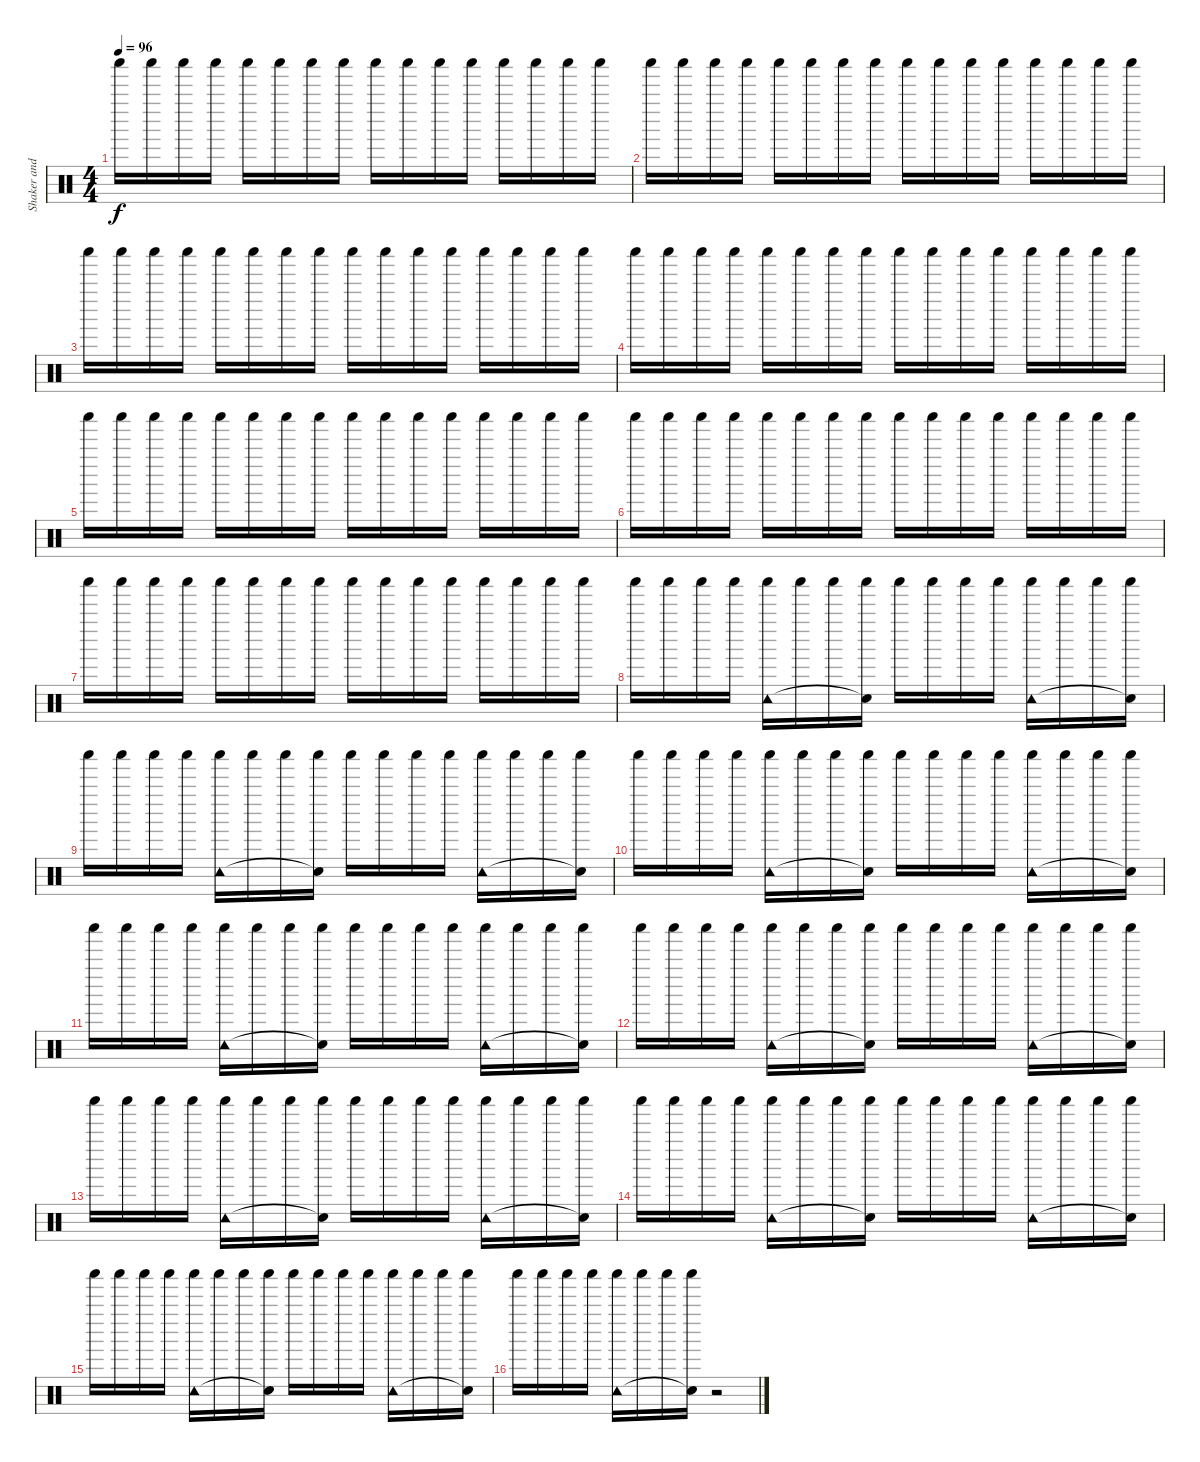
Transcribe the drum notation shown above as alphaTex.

\track ("Shaker and Tambourine" "Shaker and") {instrument percussion}
\staff {score}
\articulation defaults
\ts (4 4)
\tempo 96
\clef neutral
\ks c "Shaker (hit)".16{dy f} "Shaker (hit)".16 "Shaker (hit)".16 "Shaker (hit)".16 "Shaker (hit)".16 "Shaker (hit)".16 "Shaker (hit)".16 "Shaker (hit)".16 "Shaker (hit)".16 "Shaker (hit)".16 "Shaker (hit)".16 "Shaker (hit)".16 "Shaker (hit)".16 "Shaker (hit)".16 "Shaker (hit)".16 "Shaker (hit)".16
|
"Shaker (hit)".16 "Shaker (hit)".16 "Shaker (hit)".16 "Shaker (hit)".16 "Shaker (hit)".16 "Shaker (hit)".16 "Shaker (hit)".16 "Shaker (hit)".16 "Shaker (hit)".16 "Shaker (hit)".16 "Shaker (hit)".16 "Shaker (hit)".16 "Shaker (hit)".16 "Shaker (hit)".16 "Shaker (hit)".16 "Shaker (hit)".16 |
"Shaker (hit)".16 "Shaker (hit)".16 "Shaker (hit)".16 "Shaker (hit)".16 "Shaker (hit)".16 "Shaker (hit)".16 "Shaker (hit)".16 "Shaker (hit)".16 "Shaker (hit)".16 "Shaker (hit)".16 "Shaker (hit)".16 "Shaker (hit)".16 "Shaker (hit)".16 "Shaker (hit)".16 "Shaker (hit)".16 "Shaker (hit)".16 |
"Shaker (hit)".16 "Shaker (hit)".16 "Shaker (hit)".16 "Shaker (hit)".16 "Shaker (hit)".16 "Shaker (hit)".16 "Shaker (hit)".16 "Shaker (hit)".16 "Shaker (hit)".16 "Shaker (hit)".16 "Shaker (hit)".16 "Shaker (hit)".16 "Shaker (hit)".16 "Shaker (hit)".16 "Shaker (hit)".16 "Shaker (hit)".16 |
"Shaker (hit)".16 "Shaker (hit)".16 "Shaker (hit)".16 "Shaker (hit)".16 "Shaker (hit)".16 "Shaker (hit)".16 "Shaker (hit)".16 "Shaker (hit)".16 "Shaker (hit)".16 "Shaker (hit)".16 "Shaker (hit)".16 "Shaker (hit)".16 "Shaker (hit)".16 "Shaker (hit)".16 "Shaker (hit)".16 "Shaker (hit)".16 |
"Shaker (hit)".16 "Shaker (hit)".16 "Shaker (hit)".16 "Shaker (hit)".16 "Shaker (hit)".16 "Shaker (hit)".16 "Shaker (hit)".16 "Shaker (hit)".16 "Shaker (hit)".16 "Shaker (hit)".16 "Shaker (hit)".16 "Shaker (hit)".16 "Shaker (hit)".16 "Shaker (hit)".16 "Shaker (hit)".16 "Shaker (hit)".16 |
"Shaker (hit)".16 "Shaker (hit)".16 "Shaker (hit)".16 "Shaker (hit)".16 "Shaker (hit)".16 "Shaker (hit)".16 "Shaker (hit)".16 "Shaker (hit)".16 "Shaker (hit)".16 "Shaker (hit)".16 "Shaker (hit)".16 "Shaker (hit)".16 "Shaker (hit)".16 "Shaker (hit)".16 "Shaker (hit)".16 "Shaker (hit)".16 |
"Shaker (hit)".16 "Shaker (hit)".16 "Shaker (hit)".16 "Shaker (hit)".16 ("Shaker (hit)" "Tambourine (hit)").16 "Shaker (hit)".16 "Shaker (hit)".16 ("Shaker (hit)" "Snare (hit)"{t}).16 "Shaker (hit)".16 "Shaker (hit)".16 "Shaker (hit)".16 "Shaker (hit)".16 ("Shaker (hit)" "Tambourine (hit)").16 "Shaker (hit)".16 "Shaker (hit)".16 ("Shaker (hit)" "Snare (hit)"{t}).16 |
"Shaker (hit)".16 "Shaker (hit)".16 "Shaker (hit)".16 "Shaker (hit)".16 ("Shaker (hit)" "Tambourine (hit)").16 "Shaker (hit)".16 "Shaker (hit)".16 ("Shaker (hit)" "Snare (hit)"{t}).16 "Shaker (hit)".16 "Shaker (hit)".16 "Shaker (hit)".16 "Shaker (hit)".16 ("Shaker (hit)" "Tambourine (hit)").16 "Shaker (hit)".16 "Shaker (hit)".16 ("Shaker (hit)" "Snare (hit)"{t}).16 |
"Shaker (hit)".16 "Shaker (hit)".16 "Shaker (hit)".16 "Shaker (hit)".16 ("Shaker (hit)" "Tambourine (hit)").16 "Shaker (hit)".16 "Shaker (hit)".16 ("Shaker (hit)" "Snare (hit)"{t}).16 "Shaker (hit)".16 "Shaker (hit)".16 "Shaker (hit)".16 "Shaker (hit)".16 ("Shaker (hit)" "Tambourine (hit)").16 "Shaker (hit)".16 "Shaker (hit)".16 ("Shaker (hit)" "Snare (hit)"{t}).16 |
"Shaker (hit)".16 "Shaker (hit)".16 "Shaker (hit)".16 "Shaker (hit)".16 ("Shaker (hit)" "Tambourine (hit)").16 "Shaker (hit)".16 "Shaker (hit)".16 ("Shaker (hit)" "Snare (hit)"{t}).16 "Shaker (hit)".16 "Shaker (hit)".16 "Shaker (hit)".16 "Shaker (hit)".16 ("Shaker (hit)" "Tambourine (hit)").16 "Shaker (hit)".16 "Shaker (hit)".16 ("Shaker (hit)" "Snare (hit)"{t}).16 |
"Shaker (hit)".16 "Shaker (hit)".16 "Shaker (hit)".16 "Shaker (hit)".16 ("Shaker (hit)" "Tambourine (hit)").16 "Shaker (hit)".16 "Shaker (hit)".16 ("Shaker (hit)" "Snare (hit)"{t}).16 "Shaker (hit)".16 "Shaker (hit)".16 "Shaker (hit)".16 "Shaker (hit)".16 ("Shaker (hit)" "Tambourine (hit)").16 "Shaker (hit)".16 "Shaker (hit)".16 ("Shaker (hit)" "Snare (hit)"{t}).16 |
"Shaker (hit)".16 "Shaker (hit)".16 "Shaker (hit)".16 "Shaker (hit)".16 ("Shaker (hit)" "Tambourine (hit)").16 "Shaker (hit)".16 "Shaker (hit)".16 ("Shaker (hit)" "Snare (hit)"{t}).16 "Shaker (hit)".16 "Shaker (hit)".16 "Shaker (hit)".16 "Shaker (hit)".16 ("Shaker (hit)" "Tambourine (hit)").16 "Shaker (hit)".16 "Shaker (hit)".16 ("Shaker (hit)" "Snare (hit)"{t}).16 |
"Shaker (hit)".16 "Shaker (hit)".16 "Shaker (hit)".16 "Shaker (hit)".16 ("Shaker (hit)" "Tambourine (hit)").16 "Shaker (hit)".16 "Shaker (hit)".16 ("Shaker (hit)" "Snare (hit)"{t}).16 "Shaker (hit)".16 "Shaker (hit)".16 "Shaker (hit)".16 "Shaker (hit)".16 ("Shaker (hit)" "Tambourine (hit)").16 "Shaker (hit)".16 "Shaker (hit)".16 ("Shaker (hit)" "Snare (hit)"{t}).16 |
"Shaker (hit)".16 "Shaker (hit)".16 "Shaker (hit)".16 "Shaker (hit)".16 ("Shaker (hit)" "Tambourine (hit)").16 "Shaker (hit)".16 "Shaker (hit)".16 ("Shaker (hit)" "Snare (hit)"{t}).16 "Shaker (hit)".16 "Shaker (hit)".16 "Shaker (hit)".16 "Shaker (hit)".16 ("Shaker (hit)" "Tambourine (hit)").16 "Shaker (hit)".16 "Shaker (hit)".16 ("Shaker (hit)" "Snare (hit)"{t}).16 |
"Shaker (hit)".16 "Shaker (hit)".16 "Shaker (hit)".16 "Shaker (hit)".16 ("Shaker (hit)" "Tambourine (hit)").16 "Shaker (hit)".16 "Shaker (hit)".16 ("Shaker (hit)" "Snare (hit)"{t}).16 r.2
